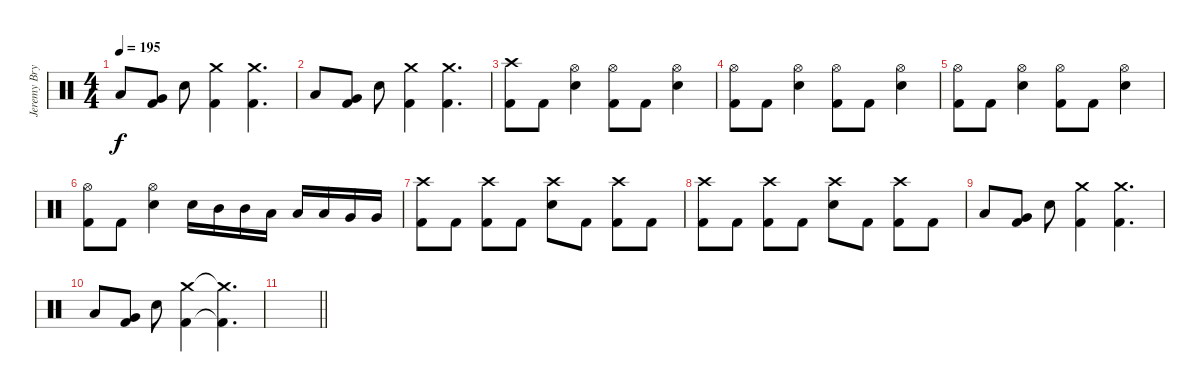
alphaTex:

\track ("Jeremy Bryan - Drums" "Jeremy Bry") {instrument percussion}
\staff {score}
\articulation defaults
\ts (4 4)
\tempo 195
\clef neutral
\ks c "Low Tom (hit)".8{dy f}
("Very Low Tom (hit)" "Kick (hit) 2").8 "Electric Snare (hit)".8 ("Crash medium (hit)" "Kick (hit) 2").4 ("Crash medium (hit)" "Kick (hit) 2").4{d} |
"Low Tom (hit)".8 ("Very Low Tom (hit)" "Kick (hit) 2").8 "Electric Snare (hit)".8 ("Crash medium (hit)" "Kick (hit) 2").4 ("Crash medium (hit)" "Kick (hit) 2").4{d} |
("Crash high (hit)" "Kick (hit) 2").8 "Kick (hit) 2".8 ("Hi-Hat (open)" "Electric Snare (hit)").4 ("Hi-Hat (open)" "Kick (hit) 2").8 "Kick (hit) 2".8 ("Hi-Hat (open)" "Electric Snare (hit)").4 |
("Hi-Hat (open)" "Kick (hit) 2").8 "Kick (hit) 2".8 ("Hi-Hat (open)" "Electric Snare (hit)").4 ("Hi-Hat (open)" "Kick (hit) 2").8 "Kick (hit) 2".8 ("Hi-Hat (open)" "Electric Snare (hit)").4 |
("Hi-Hat (open)" "Kick (hit) 2").8 "Kick (hit) 2".8 ("Hi-Hat (open)" "Electric Snare (hit)").4 ("Hi-Hat (open)" "Kick (hit) 2").8 "Kick (hit) 2".8 ("Hi-Hat (open)" "Electric Snare (hit)").4 |
("Hi-Hat (open)" "Kick (hit) 2").8 "Kick (hit) 2".8 ("Hi-Hat (open)" "Electric Snare (hit)").4 "Electric Snare (hit)".16 "Mid Tom (hit)".16 "Mid Tom (hit)".16 "Low Tom (hit)".16 "Low Tom (hit)".16 "Low Tom (hit)".16 "Very Low Tom (hit)".16 "Very Low Tom (hit)".16 |
("Crash high (hit)" "Kick (hit) 2").8 "Kick (hit) 2".8 ("Crash high (hit)" "Kick (hit) 2").8 "Kick (hit) 2".8 ("Crash high (hit)" "Electric Snare (hit)").8 "Kick (hit) 2".8 ("Crash high (hit)" "Kick (hit) 2").8 "Kick (hit) 2".8 |
("Crash high (hit)" "Kick (hit) 2").8 "Kick (hit) 2".8 ("Crash high (hit)" "Kick (hit) 2").8 "Kick (hit) 2".8 ("Crash high (hit)" "Electric Snare (hit)").8 "Kick (hit) 2".8 ("Crash high (hit)" "Kick (hit) 2").8 "Kick (hit) 2".8 |
"Low Tom (hit)".8 ("Very Low Tom (hit)" "Kick (hit) 2").8 "Electric Snare (hit)".8 ("Crash medium (hit)" "Kick (hit) 2").4 ("Crash medium (hit)" "Kick (hit) 2").4{d} |
"Low Tom (hit)".8 ("Very Low Tom (hit)" "Kick (hit) 2").8 "Electric Snare (hit)".8 ("Crash medium (hit)" "Kick (hit) 2").4 ("Crash medium (hit)"{t} "Kick (hit) 2"{t}).4{d} |
\barLineRight lightlight
